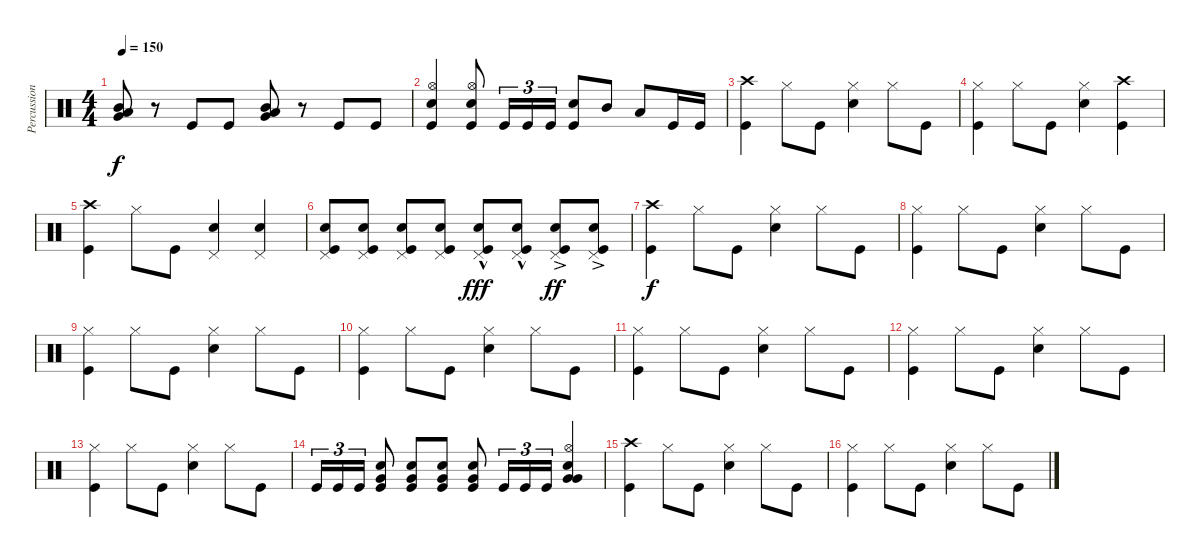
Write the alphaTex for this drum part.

\track ("Percussion" "Percussion") {instrument percussion}
\staff {score}
\articulation defaults
\ts (4 4)
\tempo 150
\clef neutral
\ks c
("Very Low Tom (hit)" "Mid Tom (hit)" "Low Tom (hit)").8{dy f} r.8 "Kick (hit)".8 "Kick (hit)".8 ("Very Low Tom (hit)" "Mid Tom (hit)" "Low Tom (hit)").8 r.8 "Kick (hit)".8 "Kick (hit)".8 |
("Kick (hit)" "Hi-Hat (open)" "Snare (hit) 2").4 ("Kick (hit)" "Hi-Hat (open)" "Snare (hit) 2").8 "Kick (hit)".16{tu (3 2)} "Kick (hit)".16{tu (3 2)} "Kick (hit)".16{tu (3 2)} ("Kick (hit)" "Snare (hit) 2").8 "Mid Tom (hit)".8 "Low Tom (hit)".8 "Kick (hit)".16 "Kick (hit)".16 |
("Kick (hit)" "Crash high (hit)").4 "Hi-Hat (closed)".8 "Kick (hit)".8 ("Hi-Hat (closed)" "Snare (hit) 2").4 "Hi-Hat (closed)".8 "Kick (hit)".8 |
("Kick (hit)" "Hi-Hat (closed)").4 "Hi-Hat (closed)".8 "Kick (hit)".8 ("Hi-Hat (closed)" "Snare (hit) 2").4 ("Kick (hit)" "Crash high (hit)").4 |
("Kick (hit)" "Crash high (hit)").4 "Hi-Hat (closed)".8 "Kick (hit)".8 ("Snare (hit) 2" "Pedal Hi-Hat (hit)").4 ("Snare (hit) 2" "Pedal Hi-Hat (hit)").4 |
("Kick (hit)" "Snare (hit) 2" "Pedal Hi-Hat (hit)").8 ("Kick (hit)" "Snare (hit) 2" "Pedal Hi-Hat (hit)").8 ("Kick (hit)" "Snare (hit) 2" "Pedal Hi-Hat (hit)").8 ("Kick (hit)" "Snare (hit) 2" "Pedal Hi-Hat (hit)").8 ("Kick (hit)"{hac} "Snare (hit) 2" "Pedal Hi-Hat (hit)").8{dy fff} ("Kick (hit)"{hac} "Snare (hit) 2" "Pedal Hi-Hat (hit)").8 ("Kick (hit)"{ac} "Snare (hit) 2" "Pedal Hi-Hat (hit)").8{dy ff} ("Kick (hit)"{ac} "Snare (hit) 2" "Pedal Hi-Hat (hit)").8 |
("Kick (hit)" "Crash high (hit)").4{dy f} "Hi-Hat (closed)".8 "Kick (hit)".8 ("Snare (hit) 2" "Hi-Hat (closed)").4 "Hi-Hat (closed)".8 "Kick (hit)".8 |
("Kick (hit)" "Hi-Hat (closed)").4 "Hi-Hat (closed)".8 "Kick (hit)".8 ("Snare (hit) 2" "Hi-Hat (closed)").4 "Hi-Hat (closed)".8 "Kick (hit)".8 |
("Kick (hit)" "Hi-Hat (closed)").4 "Hi-Hat (closed)".8 "Kick (hit)".8 ("Snare (hit) 2" "Hi-Hat (closed)").4 "Hi-Hat (closed)".8 "Kick (hit)".8 |
("Kick (hit)" "Hi-Hat (closed)").4 "Hi-Hat (closed)".8 "Kick (hit)".8 ("Snare (hit) 2" "Hi-Hat (closed)").4 "Hi-Hat (closed)".8 "Kick (hit)".8 |
("Kick (hit)" "Hi-Hat (closed)").4 "Hi-Hat (closed)".8 "Kick (hit)".8 ("Snare (hit) 2" "Hi-Hat (closed)").4 "Hi-Hat (closed)".8 "Kick (hit)".8 |
("Kick (hit)" "Hi-Hat (closed)").4 "Hi-Hat (closed)".8 "Kick (hit)".8 ("Snare (hit) 2" "Hi-Hat (closed)").4 "Hi-Hat (closed)".8 "Kick (hit)".8 |
("Kick (hit)" "Hi-Hat (closed)").4 "Hi-Hat (closed)".8 "Kick (hit)".8 ("Snare (hit) 2" "Hi-Hat (closed)").4 "Hi-Hat (closed)".8 "Kick (hit)".8 |
"Kick (hit)".16{tu (3 2)} "Kick (hit)".16{tu (3 2)} "Kick (hit)".16{tu (3 2)} ("Kick (hit)" "Snare (hit) 2" "Very Low Tom (hit)").8 ("Kick (hit)" "Snare (hit) 2" "Very Low Tom (hit)").8 ("Kick (hit)" "Snare (hit) 2" "Very Low Tom (hit)").8 ("Kick (hit)" "Snare (hit) 2" "Very Low Tom (hit)").8 "Kick (hit)".16{tu (3 2)} "Kick (hit)".16{tu (3 2)} "Kick (hit)".16{tu (3 2)} ("Very Low Tom (hit)" "Very Low Tom (hit)" "Hi-Hat (open)" "Snare (hit) 2").4 |
("Kick (hit)" "Crash high (hit)").4 "Hi-Hat (closed)".8 "Kick (hit)".8 ("Snare (hit) 2" "Hi-Hat (closed)").4 "Hi-Hat (closed)".8 "Kick (hit)".8 |
("Kick (hit)" "Hi-Hat (closed)").4 "Hi-Hat (closed)".8 "Kick (hit)".8 ("Snare (hit) 2" "Hi-Hat (closed)").4 "Hi-Hat (closed)".8 "Kick (hit)".8
